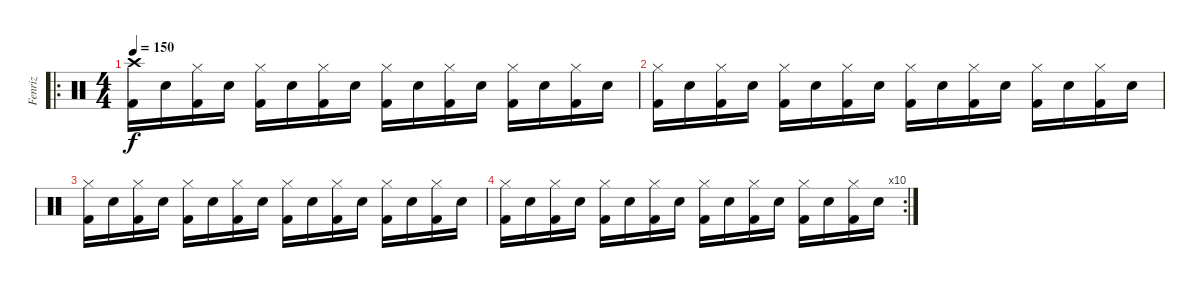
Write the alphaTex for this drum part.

\track ("Fenriz" "Fenriz") {instrument percussion}
\staff {score}
\articulation defaults
\ro
\ts (4 4)
\tempo 150
\clef neutral
\ks c
("Crash high (hit)" "Kick (hit) 2").16{dy f} "Snare (hit) 2".16 ("Hi-Hat (closed)" "Kick (hit) 2").16 "Snare (hit) 2".16 ("Hi-Hat (closed)" "Kick (hit) 2").16 "Snare (hit) 2".16 ("Hi-Hat (closed)" "Kick (hit) 2").16 "Snare (hit) 2".16 ("Hi-Hat (closed)" "Kick (hit) 2").16 "Snare (hit) 2".16 ("Hi-Hat (closed)" "Kick (hit) 2").16 "Snare (hit) 2".16 ("Hi-Hat (closed)" "Kick (hit) 2").16 "Snare (hit) 2".16 ("Hi-Hat (closed)" "Kick (hit) 2").16 "Snare (hit) 2".16 |
("Hi-Hat (closed)" "Kick (hit) 2").16 "Snare (hit) 2".16 ("Hi-Hat (closed)" "Kick (hit) 2").16 "Snare (hit) 2".16 ("Hi-Hat (closed)" "Kick (hit) 2").16 "Snare (hit) 2".16 ("Hi-Hat (closed)" "Kick (hit) 2").16 "Snare (hit) 2".16 ("Hi-Hat (closed)" "Kick (hit) 2").16 "Snare (hit) 2".16 ("Hi-Hat (closed)" "Kick (hit) 2").16 "Snare (hit) 2".16 ("Hi-Hat (closed)" "Kick (hit) 2").16 "Snare (hit) 2".16 ("Hi-Hat (closed)" "Kick (hit) 2").16 "Snare (hit) 2".16 |
("Hi-Hat (closed)" "Kick (hit) 2").16 "Snare (hit) 2".16 ("Hi-Hat (closed)" "Kick (hit) 2").16 "Snare (hit) 2".16 ("Hi-Hat (closed)" "Kick (hit) 2").16 "Snare (hit) 2".16 ("Hi-Hat (closed)" "Kick (hit) 2").16 "Snare (hit) 2".16 ("Hi-Hat (closed)" "Kick (hit) 2").16 "Snare (hit) 2".16 ("Hi-Hat (closed)" "Kick (hit) 2").16 "Snare (hit) 2".16 ("Hi-Hat (closed)" "Kick (hit) 2").16 "Snare (hit) 2".16 ("Hi-Hat (closed)" "Kick (hit) 2").16 "Snare (hit) 2".16 |
\rc 10
("Hi-Hat (closed)" "Kick (hit) 2").16 "Snare (hit) 2".16 ("Hi-Hat (closed)" "Kick (hit) 2").16 "Snare (hit) 2".16 ("Hi-Hat (closed)" "Kick (hit) 2").16 "Snare (hit) 2".16 ("Hi-Hat (closed)" "Kick (hit) 2").16 "Snare (hit) 2".16 ("Hi-Hat (closed)" "Kick (hit) 2").16 "Snare (hit) 2".16 ("Hi-Hat (closed)" "Kick (hit) 2").16 "Snare (hit) 2".16 ("Hi-Hat (closed)" "Kick (hit) 2").16 "Snare (hit) 2".16 ("Hi-Hat (closed)" "Kick (hit) 2").16 "Snare (hit) 2".16
